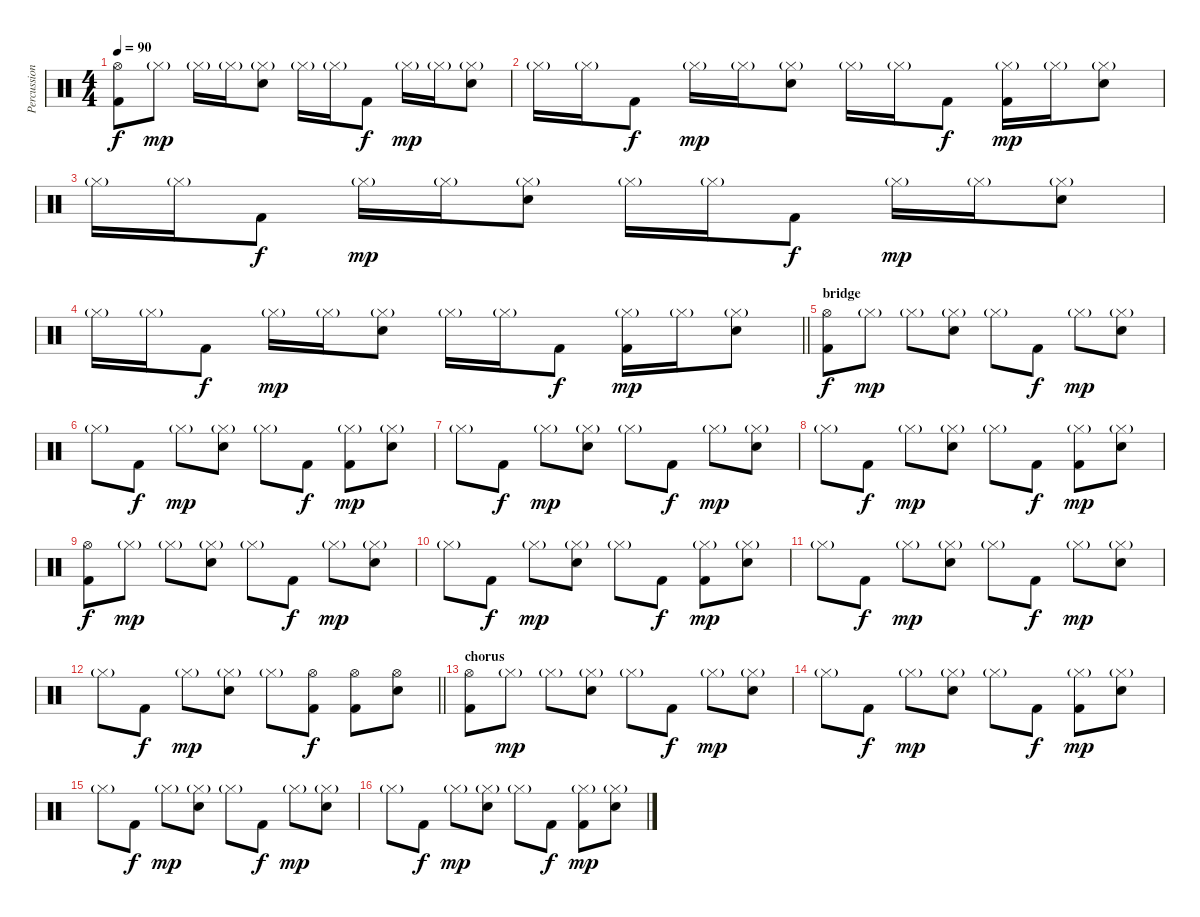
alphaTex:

\track ("Percussion" "Percussion") {instrument percussion}
\staff {score}
\articulation defaults
\ts (4 4)
\tempo 90
\clef neutral
\ks c
("Hi-Hat (open)" "Kick (hit) 2").8{dy f} "Hi-Hat (closed)"{g}.8{dy mp} "Hi-Hat (closed)"{g}.16 "Hi-Hat (closed)"{g}.16 ("Hi-Hat (closed)"{g} "Electric Snare (hit)").8 "Hi-Hat (closed)"{g}.16 "Hi-Hat (closed)"{g}.16 "Kick (hit) 2".8{dy f} "Hi-Hat (closed)"{g}.16{dy mp} "Hi-Hat (closed)"{g}.16 ("Hi-Hat (closed)"{g} "Electric Snare (hit)").8 |
"Hi-Hat (closed)"{g}.16 "Hi-Hat (closed)"{g}.16 "Kick (hit) 2".8{dy f} "Hi-Hat (closed)"{g}.16{dy mp} "Hi-Hat (closed)"{g}.16 ("Hi-Hat (closed)"{g} "Electric Snare (hit)").8 "Hi-Hat (closed)"{g}.16 "Hi-Hat (closed)"{g}.16 "Kick (hit) 2".8{dy f} ("Hi-Hat (closed)"{g} "Kick (hit) 2").16{dy mp} "Hi-Hat (closed)"{g}.16 ("Hi-Hat (closed)"{g} "Electric Snare (hit)").8 |
"Hi-Hat (closed)"{g}.16 "Hi-Hat (closed)"{g}.16 "Kick (hit) 2".8{dy f} "Hi-Hat (closed)"{g}.16{dy mp} "Hi-Hat (closed)"{g}.16 ("Hi-Hat (closed)"{g} "Electric Snare (hit)").8 "Hi-Hat (closed)"{g}.16 "Hi-Hat (closed)"{g}.16 "Kick (hit) 2".8{dy f} "Hi-Hat (closed)"{g}.16{dy mp} "Hi-Hat (closed)"{g}.16 ("Hi-Hat (closed)"{g} "Electric Snare (hit)").8 |
\barLineRight lightlight "Hi-Hat (closed)"{g}.16 "Hi-Hat (closed)"{g}.16 "Kick (hit) 2".8{dy f} "Hi-Hat (closed)"{g}.16{dy mp} "Hi-Hat (closed)"{g}.16
("Hi-Hat (closed)"{g} "Electric Snare (hit)").8 "Hi-Hat (closed)"{g}.16 "Hi-Hat (closed)"{g}.16 "Kick (hit) 2".8{dy f} ("Hi-Hat (closed)"{g} "Kick (hit) 2").16{dy mp} "Hi-Hat (closed)"{g}.16 ("Hi-Hat (closed)"{g} "Electric Snare (hit)").8 |
\section ("" "bridge")
("Hi-Hat (open)" "Kick (hit) 2").8{dy f} "Hi-Hat (closed)"{g}.8{dy mp} "Hi-Hat (closed)"{g}.8 ("Hi-Hat (closed)"{g} "Electric Snare (hit)").8 "Hi-Hat (closed)"{g}.8 "Kick (hit) 2".8{dy f} "Hi-Hat (closed)"{g}.8{dy mp} ("Hi-Hat (closed)"{g} "Electric Snare (hit)").8 |
"Hi-Hat (closed)"{g}.8 "Kick (hit) 2".8{dy f} "Hi-Hat (closed)"{g}.8{dy mp} ("Hi-Hat (closed)"{g} "Electric Snare (hit)").8 "Hi-Hat (closed)"{g}.8 "Kick (hit) 2".8{dy f} ("Hi-Hat (closed)"{g} "Kick (hit) 2").8{dy mp} ("Hi-Hat (closed)"{g} "Electric Snare (hit)").8 |
"Hi-Hat (closed)"{g}.8 "Kick (hit) 2".8{dy f} "Hi-Hat (closed)"{g}.8{dy mp} ("Hi-Hat (closed)"{g} "Electric Snare (hit)").8 "Hi-Hat (closed)"{g}.8 "Kick (hit) 2".8{dy f} "Hi-Hat (closed)"{g}.8{dy mp} ("Hi-Hat (closed)"{g} "Electric Snare (hit)").8 |
"Hi-Hat (closed)"{g}.8 "Kick (hit) 2".8{dy f} "Hi-Hat (closed)"{g}.8{dy mp} ("Hi-Hat (closed)"{g} "Electric Snare (hit)").8 "Hi-Hat (closed)"{g}.8 "Kick (hit) 2".8{dy f} ("Hi-Hat (closed)"{g} "Kick (hit) 2").8{dy mp} ("Hi-Hat (closed)"{g} "Electric Snare (hit)").8 |
("Hi-Hat (open)" "Kick (hit) 2").8{dy f} "Hi-Hat (closed)"{g}.8{dy mp} "Hi-Hat (closed)"{g}.8 ("Hi-Hat (closed)"{g} "Electric Snare (hit)").8 "Hi-Hat (closed)"{g}.8 "Kick (hit) 2".8{dy f} "Hi-Hat (closed)"{g}.8{dy mp} ("Hi-Hat (closed)"{g} "Electric Snare (hit)").8 |
"Hi-Hat (closed)"{g}.8 "Kick (hit) 2".8{dy f} "Hi-Hat (closed)"{g}.8{dy mp} ("Hi-Hat (closed)"{g} "Electric Snare (hit)").8 "Hi-Hat (closed)"{g}.8 "Kick (hit) 2".8{dy f} ("Hi-Hat (closed)"{g} "Kick (hit) 2").8{dy mp} ("Hi-Hat (closed)"{g} "Electric Snare (hit)").8 |
"Hi-Hat (closed)"{g}.8 "Kick (hit) 2".8{dy f} "Hi-Hat (closed)"{g}.8{dy mp} ("Hi-Hat (closed)"{g} "Electric Snare (hit)").8 "Hi-Hat (closed)"{g}.8 "Kick (hit) 2".8{dy f} "Hi-Hat (closed)"{g}.8{dy mp} ("Hi-Hat (closed)"{g} "Electric Snare (hit)").8 |
\barLineRight lightlight "Hi-Hat (closed)"{g}.8 "Kick (hit) 2".8{dy f} "Hi-Hat (closed)"{g}.8{dy mp}
("Hi-Hat (closed)"{g} "Electric Snare (hit)").8 "Hi-Hat (closed)"{g}.8 ("Hi-Hat (open)" "Kick (hit) 2").8{dy f} ("Hi-Hat (open)" "Kick (hit) 2").8 ("Hi-Hat (open)" "Electric Snare (hit)").8 |
\section ("" "chorus")
("Hi-Hat (open)" "Kick (hit) 2").8 "Hi-Hat (closed)"{g}.8{dy mp} "Hi-Hat (closed)"{g}.8 ("Hi-Hat (closed)"{g} "Electric Snare (hit)").8 "Hi-Hat (closed)"{g}.8 "Kick (hit) 2".8{dy f} "Hi-Hat (closed)"{g}.8{dy mp} ("Hi-Hat (closed)"{g} "Electric Snare (hit)").8 |
"Hi-Hat (closed)"{g}.8 "Kick (hit) 2".8{dy f} "Hi-Hat (closed)"{g}.8{dy mp} ("Hi-Hat (closed)"{g} "Electric Snare (hit)").8 "Hi-Hat (closed)"{g}.8 "Kick (hit) 2".8{dy f} ("Hi-Hat (closed)"{g} "Kick (hit) 2").8{dy mp} ("Hi-Hat (closed)"{g} "Electric Snare (hit)").8 |
"Hi-Hat (closed)"{g}.8 "Kick (hit) 2".8{dy f} "Hi-Hat (closed)"{g}.8{dy mp} ("Hi-Hat (closed)"{g} "Electric Snare (hit)").8 "Hi-Hat (closed)"{g}.8 "Kick (hit) 2".8{dy f} "Hi-Hat (closed)"{g}.8{dy mp} ("Hi-Hat (closed)"{g} "Electric Snare (hit)").8 |
"Hi-Hat (closed)"{g}.8 "Kick (hit) 2".8{dy f} "Hi-Hat (closed)"{g}.8{dy mp} ("Hi-Hat (closed)"{g} "Electric Snare (hit)").8 "Hi-Hat (closed)"{g}.8 "Kick (hit) 2".8{dy f} ("Hi-Hat (closed)"{g} "Kick (hit) 2").8{dy mp} ("Hi-Hat (closed)"{g} "Electric Snare (hit)").8
